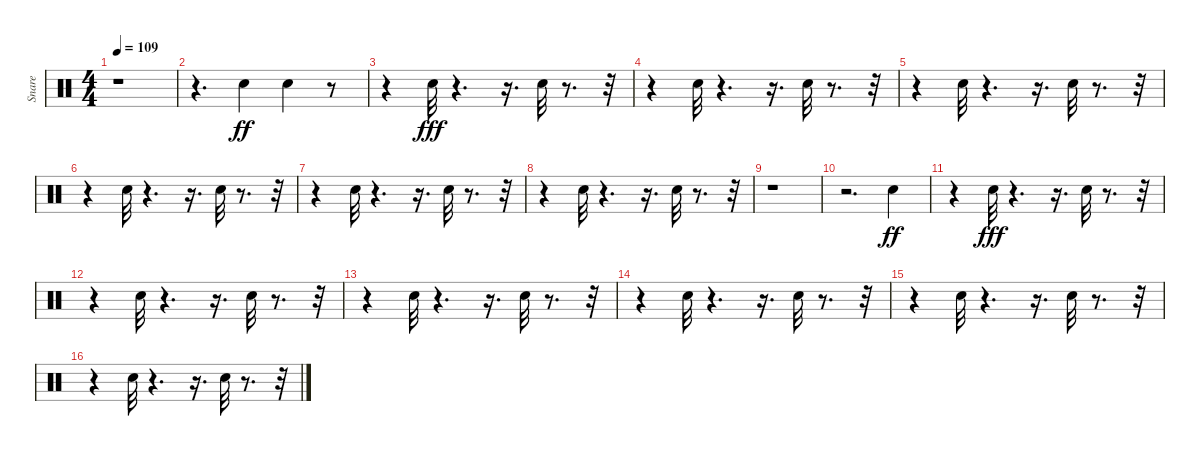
\track ("Snare" "Snare") {instrument percussion}
\staff {score}
\articulation defaults
\ts (4 4)
\tempo 109
\clef neutral
\ks c
r.1{dy ff} |
r.4{d} "Electric Snare (hit)".4 "Electric Snare (hit)".4 r.8 |
r.4 "Electric Snare (hit)".32{dy fff} r.4{d} r.16{d} "Electric Snare (hit)".32 r.8{d} r.32 |
r.4 "Electric Snare (hit)".32 r.4{d} r.16{d} "Electric Snare (hit)".32 r.8{d} r.32 |
r.4 "Electric Snare (hit)".32 r.4{d} r.16{d} "Electric Snare (hit)".32 r.8{d} r.32 |
r.4 "Electric Snare (hit)".32 r.4{d} r.16{d} "Electric Snare (hit)".32 r.8{d} r.32 |
r.4 "Electric Snare (hit)".32 r.4{d} r.16{d} "Electric Snare (hit)".32 r.8{d} r.32 |
r.4 "Electric Snare (hit)".32 r.4{d} r.16{d} "Electric Snare (hit)".32 r.8{d} r.32 |
r.1 |
r.2{d} "Electric Snare (hit)".4{dy ff} |
r.4 "Electric Snare (hit)".32{dy fff} r.4{d} r.16{d} "Electric Snare (hit)".32 r.8{d} r.32 |
r.4 "Electric Snare (hit)".32 r.4{d} r.16{d} "Electric Snare (hit)".32 r.8{d} r.32 |
r.4 "Electric Snare (hit)".32 r.4{d} r.16{d} "Electric Snare (hit)".32 r.8{d} r.32 |
r.4 "Electric Snare (hit)".32 r.4{d} r.16{d} "Electric Snare (hit)".32 r.8{d} r.32 |
r.4 "Electric Snare (hit)".32 r.4{d} r.16{d} "Electric Snare (hit)".32 r.8{d} r.32 |
r.4 "Electric Snare (hit)".32 r.4{d} r.16{d} "Electric Snare (hit)".32 r.8{d} r.32
